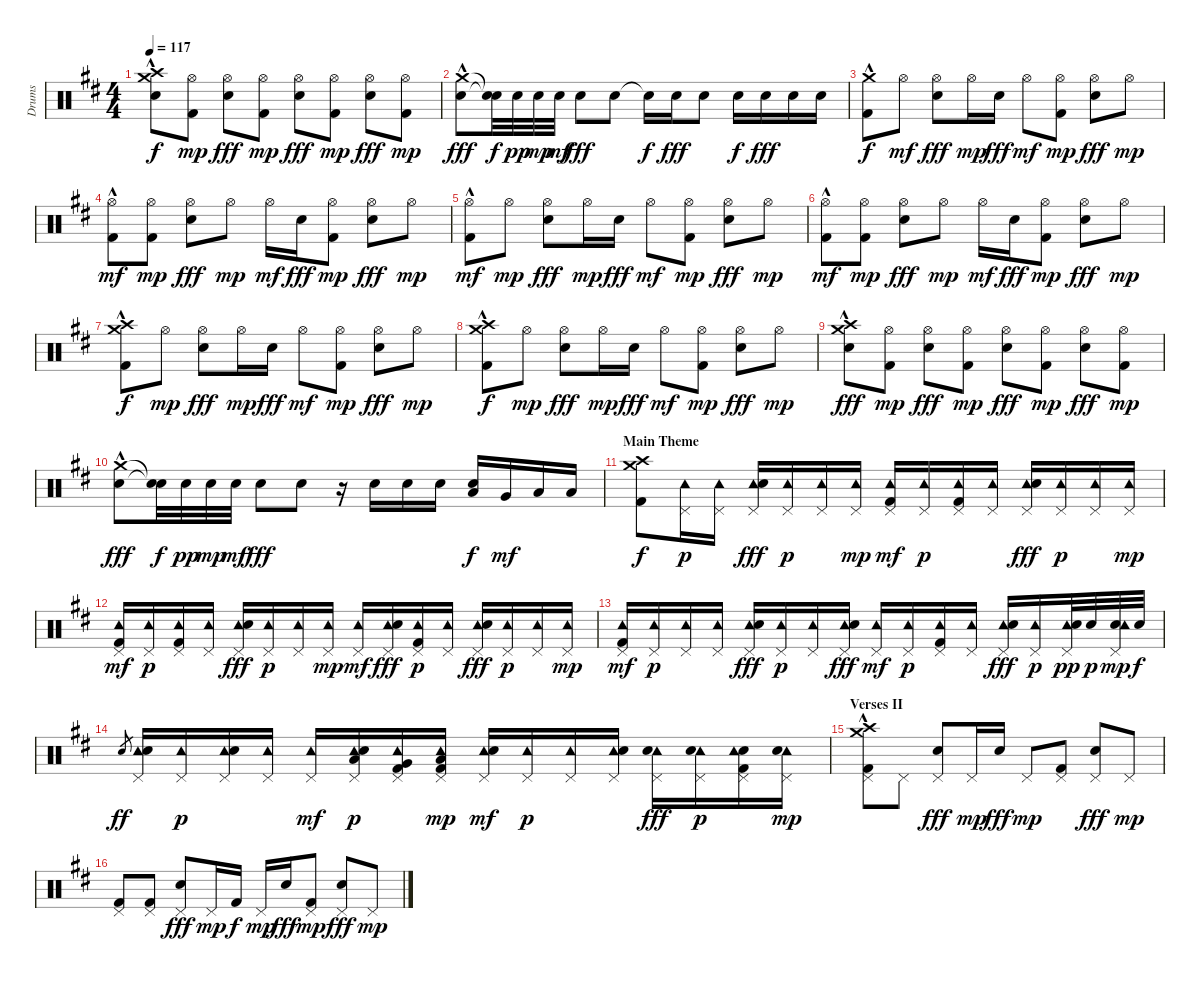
\track ("Drums" "Drums") {instrument percussion}
\staff {score}
\articulation defaults
\ts (4 4)
\tempo 117
\clef neutral
\ks d
("Crash medium (hit)" "Crash high (hit)" "Electric Snare (hit)"{hac}).8{dy f} ("Hi-Hat (open)" "Kick (hit) 2").8{dy mp} ("Hi-Hat (open)" "Electric Snare (hit)").8{dy fff} ("Hi-Hat (open)" "Kick (hit) 2").8{dy mp} ("Hi-Hat (open)" "Electric Snare (hit)").8{dy fff} ("Hi-Hat (open)" "Kick (hit) 2").8{dy mp} ("Hi-Hat (open)" "Electric Snare (hit)").8{dy fff} ("Hi-Hat (open)" "Kick (hit) 2").8{dy mp} |
("Crash medium (hit)" "Electric Snare (hit)"{hac}).8{dy fff} ("Snare (hit)"{t} "Snare (hit)"{t}).32{dy f} "Electric Snare (hit)".32{dy pp} "Electric Snare (hit)".32{dy mp} "Electric Snare (hit)".32{dy mf} "Electric Snare (hit)".8{dy fff} "Electric Snare (hit)".8 "Snare (hit)"{t}.16{dy f} "Electric Snare (hit)".16{dy fff} "Electric Snare (hit)".8 "Electric Snare (hit)".16{dy f} "Electric Snare (hit)".16{dy fff} "Electric Snare (hit)".16 "Electric Snare (hit)".16 |
("Crash medium (hit)" "Kick (hit) 2"{hac}).8{dy f} "Hi-Hat (open)".8{dy mf} ("Hi-Hat (open)" "Electric Snare (hit)").8{dy fff} "Hi-Hat (open)".16{dy mp} "Electric Snare (hit)".16{dy fff} "Hi-Hat (open)".8{dy mf} ("Hi-Hat (open)" "Kick (hit) 2").8{dy mp} ("Hi-Hat (open)" "Electric Snare (hit)").8{dy fff} "Hi-Hat (open)".8{dy mp} |
("Hi-Hat (open)" "Kick (hit) 2"{hac}).8{dy mf} ("Hi-Hat (open)" "Kick (hit) 2").8{dy mp} ("Hi-Hat (open)" "Electric Snare (hit)").8{dy fff} "Hi-Hat (open)".8{dy mp} "Hi-Hat (open)".16{dy mf} "Electric Snare (hit)".16{dy fff} ("Hi-Hat (open)" "Kick (hit) 2").8{dy mp} ("Hi-Hat (open)" "Electric Snare (hit)").8{dy fff} "Hi-Hat (open)".8{dy mp} |
("Hi-Hat (open)" "Kick (hit) 2"{hac}).8{dy mf} "Hi-Hat (open)".8{dy mp} ("Hi-Hat (open)" "Electric Snare (hit)").8{dy fff} "Hi-Hat (open)".16{dy mp} "Electric Snare (hit)".16{dy fff} "Hi-Hat (open)".8{dy mf} ("Hi-Hat (open)" "Kick (hit) 2").8{dy mp} ("Hi-Hat (open)" "Electric Snare (hit)").8{dy fff} "Hi-Hat (open)".8{dy mp} |
("Hi-Hat (open)" "Kick (hit) 2"{hac}).8{dy mf} ("Hi-Hat (open)" "Kick (hit) 2").8{dy mp} ("Hi-Hat (open)" "Electric Snare (hit)").8{dy fff} "Hi-Hat (open)".8{dy mp} "Hi-Hat (open)".16{dy mf} "Electric Snare (hit)".16{dy fff} ("Hi-Hat (open)" "Kick (hit) 2").8{dy mp} ("Hi-Hat (open)" "Electric Snare (hit)").8{dy fff} "Hi-Hat (open)".8{dy mp} |
("Crash high (hit)" "Crash medium (hit)" "Kick (hit) 2"{hac}).8{dy f} "Hi-Hat (open)".8{dy mp} ("Hi-Hat (open)" "Electric Snare (hit)").8{dy fff} "Hi-Hat (open)".16{dy mp} "Electric Snare (hit)".16{dy fff} "Hi-Hat (open)".8{dy mf} ("Hi-Hat (open)" "Kick (hit) 2").8{dy mp} ("Hi-Hat (open)" "Electric Snare (hit)").8{dy fff} "Hi-Hat (open)".8{dy mp} |
("Crash high (hit)" "Crash medium (hit)" "Kick (hit) 2"{hac}).8{dy f} "Hi-Hat (open)".8{dy mp} ("Hi-Hat (open)" "Electric Snare (hit)").8{dy fff} "Hi-Hat (open)".16{dy mp} "Electric Snare (hit)".16{dy fff} "Hi-Hat (open)".8{dy mf} ("Hi-Hat (open)" "Kick (hit) 2").8{dy mp} ("Hi-Hat (open)" "Electric Snare (hit)").8{dy fff} "Hi-Hat (open)".8{dy mp} |
("Crash medium (hit)" "Crash high (hit)" "Electric Snare (hit)"{hac}).8{dy fff} ("Hi-Hat (open)" "Kick (hit) 2").8{dy mp} ("Hi-Hat (open)" "Electric Snare (hit)").8{dy fff} ("Hi-Hat (open)" "Kick (hit) 2").8{dy mp} ("Hi-Hat (open)" "Electric Snare (hit)").8{dy fff} ("Hi-Hat (open)" "Kick (hit) 2").8{dy mp} ("Hi-Hat (open)" "Electric Snare (hit)").8{dy fff} ("Hi-Hat (open)" "Kick (hit) 2").8{dy mp} |
("Crash medium (hit)" "Electric Snare (hit)"{hac}).8{dy fff} ("Snare (hit)"{t} "Snare (hit)"{t}).32{dy f} "Electric Snare (hit)".32{dy pp} "Electric Snare (hit)".32{dy mp} "Electric Snare (hit)".32{dy mf} "Electric Snare (hit)".8{dy fff} "Electric Snare (hit)".8 r.16 "Electric Snare (hit)".16 "Electric Snare (hit)".16 "Electric Snare (hit)".16 ("Electric Snare (hit)" "Low Tom (hit)").16{dy f} "Very Low Tom (hit)".16{dy mf} "Low Floor Tom (hit)".16 "Low Floor Tom (hit)".16 |
\section ("" "Main Theme")
("Crash medium (hit)" "Crash high (hit)" "Kick (hit) 2").8{dy f} ("Pedal Hi-Hat (hit)" "Tambourine (hit)").16{dy p} ("Pedal Hi-Hat (hit)" "Tambourine (hit)").16 ("Pedal Hi-Hat (hit)" "Tambourine (hit)" "Electric Snare (hit)").16{dy fff} ("Tambourine (hit)" "Pedal Hi-Hat (hit)").16{dy p} ("Tambourine (hit)" "Pedal Hi-Hat (hit)").16 ("Tambourine (hit)" "Pedal Hi-Hat (hit)").16{dy mp} ("Pedal Hi-Hat (hit)" "Tambourine (hit)" "Kick (hit) 2").16{dy mf} ("Pedal Hi-Hat (hit)" "Tambourine (hit)").16{dy p} ("Pedal Hi-Hat (hit)" "Tambourine (hit)" "Kick (hit) 2").16 ("Tambourine (hit)" "Pedal Hi-Hat (hit)").16 ("Tambourine (hit)" "Pedal Hi-Hat (hit)" "Electric Snare (hit)").16{dy fff} ("Pedal Hi-Hat (hit)" "Tambourine (hit)").16{dy p} ("Pedal Hi-Hat (hit)" "Tambourine (hit)").16 ("Tambourine (hit)" "Pedal Hi-Hat (hit)").16{dy mp} |
("Pedal Hi-Hat (hit)" "Tambourine (hit)" "Kick (hit) 2").16{dy mf} ("Tambourine (hit)" "Pedal Hi-Hat (hit)").16{dy p} ("Pedal Hi-Hat (hit)" "Tambourine (hit)" "Kick (hit) 2").16 ("Tambourine (hit)" "Pedal Hi-Hat (hit)").16 ("Tambourine (hit)" "Pedal Hi-Hat (hit)" "Electric Snare (hit)").16{dy fff} ("Pedal Hi-Hat (hit)" "Tambourine (hit)").16{dy p} ("Pedal Hi-Hat (hit)" "Tambourine (hit)").16 ("Pedal Hi-Hat (hit)" "Tambourine (hit)").16{dy mp} ("Pedal Hi-Hat (hit)" "Tambourine (hit)").16{dy mf} ("Tambourine (hit)" "Pedal Hi-Hat (hit)" "Electric Snare (hit)").16{dy fff} ("Pedal Hi-Hat (hit)" "Tambourine (hit)" "Kick (hit) 2").16{dy p} ("Pedal Hi-Hat (hit)" "Tambourine (hit)").16 ("Tambourine (hit)" "Pedal Hi-Hat (hit)" "Electric Snare (hit)").16{dy fff} ("Tambourine (hit)" "Pedal Hi-Hat (hit)").16{dy p} ("Tambourine (hit)" "Pedal Hi-Hat (hit)").16 ("Tambourine (hit)" "Pedal Hi-Hat (hit)").16{dy mp} |
("Pedal Hi-Hat (hit)" "Tambourine (hit)" "Kick (hit) 2").16{dy mf} ("Tambourine (hit)" "Pedal Hi-Hat (hit)").16{dy p} ("Pedal Hi-Hat (hit)" "Tambourine (hit)").16 ("Pedal Hi-Hat (hit)" "Tambourine (hit)").16 ("Tambourine (hit)" "Pedal Hi-Hat (hit)" "Electric Snare (hit)").16{dy fff} ("Tambourine (hit)" "Pedal Hi-Hat (hit)").16{dy p} ("Pedal Hi-Hat (hit)" "Tambourine (hit)").16 ("Pedal Hi-Hat (hit)" "Tambourine (hit)" "Electric Snare (hit)").16{dy fff} ("Pedal Hi-Hat (hit)" "Tambourine (hit)").16{dy mf} ("Pedal Hi-Hat (hit)" "Tambourine (hit)").16{dy p} ("Tambourine (hit)" "Pedal Hi-Hat (hit)" "Kick (hit) 2").16 ("Pedal Hi-Hat (hit)" "Tambourine (hit)").16 ("Pedal Hi-Hat (hit)" "Tambourine (hit)" "Electric Snare (hit)").16{dy fff} ("Tambourine (hit)" "Pedal Hi-Hat (hit)").16{dy p} ("Tambourine (hit)" "Pedal Hi-Hat (hit)" "Electric Snare (hit)").32{dy pp} "Electric Snare (hit)".32{dy p} ("Electric Snare (hit)" "Tambourine (hit)" "Pedal Hi-Hat (hit)").32{dy mp} "Electric Snare (hit)".32{dy f} |
"Electric Snare (hit)".8{gr dy ff} ("Tambourine (hit)" "Pedal Hi-Hat (hit)" "Electric Snare (hit)").16 ("Tambourine (hit)" "Pedal Hi-Hat (hit)").16{dy p} ("Pedal Hi-Hat (hit)" "Tambourine (hit)" "Electric Snare (hit)").16 ("Pedal Hi-Hat (hit)" "Tambourine (hit)").16 ("Pedal Hi-Hat (hit)" "Tambourine (hit)").16{dy mf} ("Tambourine (hit)" "Pedal Hi-Hat (hit)" "Electric Snare (hit)" "Low Tom (hit)").16{dy p} ("Tambourine (hit)" "Pedal Hi-Hat (hit)" "Kick (hit) 2" "Very Low Tom (hit)").16 ("Tambourine (hit)" "Pedal Hi-Hat (hit)" "Kick (hit) 2" "Low Floor Tom (hit)").16{dy mp} ("Pedal Hi-Hat (hit)" "Tambourine (hit)" "Electric Snare (hit)").16{dy mf} ("Pedal Hi-Hat (hit)" "Tambourine (hit)").16{dy p} ("Pedal Hi-Hat (hit)" "Tambourine (hit)").16 ("Tambourine (hit)" "Pedal Hi-Hat (hit)" "Electric Snare (hit)").16 ("Tambourine (hit)" "Pedal Hi-Hat (hit)" "Electric Snare (hit)").16{dy fff} ("Pedal Hi-Hat (hit)" "Tambourine (hit)" "Electric Snare (hit)").16{dy p} ("Kick (hit) 2" "Electric Snare (hit)" "Pedal Hi-Hat (hit)" "Tambourine (hit)").16 ("Tambourine (hit)" "Pedal Hi-Hat (hit)" "Electric Snare (hit)").16{dy mp} |
\section ("" "Verses II")
("Pedal Hi-Hat (hit)"{hac} "Crash medium (hit)" "Crash high (hit)" "Kick (hit) 2"{hac}).8 "Pedal Hi-Hat (hit)".8 ("Pedal Hi-Hat (hit)" "Electric Snare (hit)").8{dy fff} "Pedal Hi-Hat (hit)".16{dy mp} "Electric Snare (hit)".16{dy fff} "Pedal Hi-Hat (hit)".8{dy mp} ("Pedal Hi-Hat (hit)" "Kick (hit) 2").8 ("Pedal Hi-Hat (hit)" "Electric Snare (hit)").8{dy fff} "Pedal Hi-Hat (hit)".8{dy mp} |
("Pedal Hi-Hat (hit)" "Kick (hit) 2").8 ("Pedal Hi-Hat (hit)" "Kick (hit) 2").8 ("Pedal Hi-Hat (hit)" "Electric Snare (hit)").8{dy fff} "Pedal Hi-Hat (hit)".16{dy mp} "Kick (hit) 2".16{dy f} "Pedal Hi-Hat (hit)".16{dy mp} "Electric Snare (hit)".16{dy fff} ("Pedal Hi-Hat (hit)" "Kick (hit) 2").8{dy mp} ("Pedal Hi-Hat (hit)" "Electric Snare (hit)").8{dy fff} "Pedal Hi-Hat (hit)".8{dy mp}
